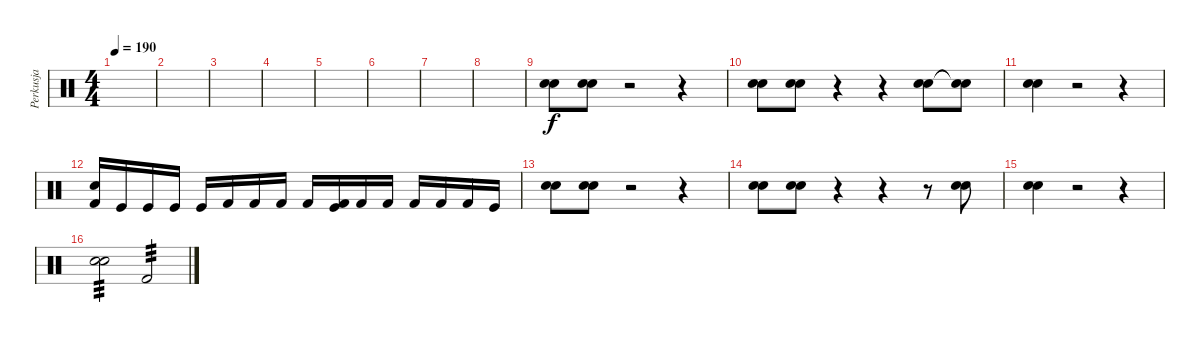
\track ("Perkusja" "Perkusja") {instrument percussion}
\staff {score}
\articulation defaults
\ts (4 4)
\tempo 190
\clef neutral
\ks c
|
|
|
|
|
|
|
|
("Snare (hit) 2" "Electric Snare (hit)").8 ("Snare (hit) 2" "Electric Snare (hit)").8 r.2 r.4 |
("Snare (hit) 2" "Electric Snare (hit)").8 ("Snare (hit) 2" "Electric Snare (hit)").8 r.4 r.4 ("Snare (hit) 2" "Electric Snare (hit)").8 ("Snare (hit) 2"{t} "Electric Snare (hit)"{t}).8 |
("Snare (hit) 2" "Electric Snare (hit)").4 r.2 r.4 |
("Kick (hit) 2" "Electric Snare (hit)").16{volume 11 balance 16} "Kick (hit)".16{balance 16} "Kick (hit)".16{balance 15} "Kick (hit)".16{balance 14} "Kick (hit)".16{volume 6 balance 13} "Kick (hit) 2".16{balance 12} "Kick (hit) 2".16{balance 11} "Kick (hit) 2".16{balance 10} "Kick (hit) 2".16{balance 6} ("Kick (hit)" "Kick (hit) 2").16{balance 5} "Kick (hit) 2".16{balance 4} "Kick (hit) 2".16{balance 3} "Kick (hit) 2".16{balance 2} "Kick (hit) 2".16{balance 1} "Kick (hit) 2".16{balance 0} "Kick (hit)".16{balance 0} |
("Snare (hit) 2" "Electric Snare (hit)").8{volume 13 balance 8} ("Snare (hit) 2" "Electric Snare (hit)").8 r.2 r.4 |
("Snare (hit) 2" "Electric Snare (hit)").8 ("Snare (hit) 2" "Electric Snare (hit)").8 r.4 r.4 r.8 ("Snare (hit) 2" "Electric Snare (hit)").8 |
("Snare (hit) 2" "Electric Snare (hit)").4 r.2 r.4 |
("Electric Snare (hit)" "Snare (hit) 2").2{tp 3} "Kick (hit) 2".2{tp 3}
